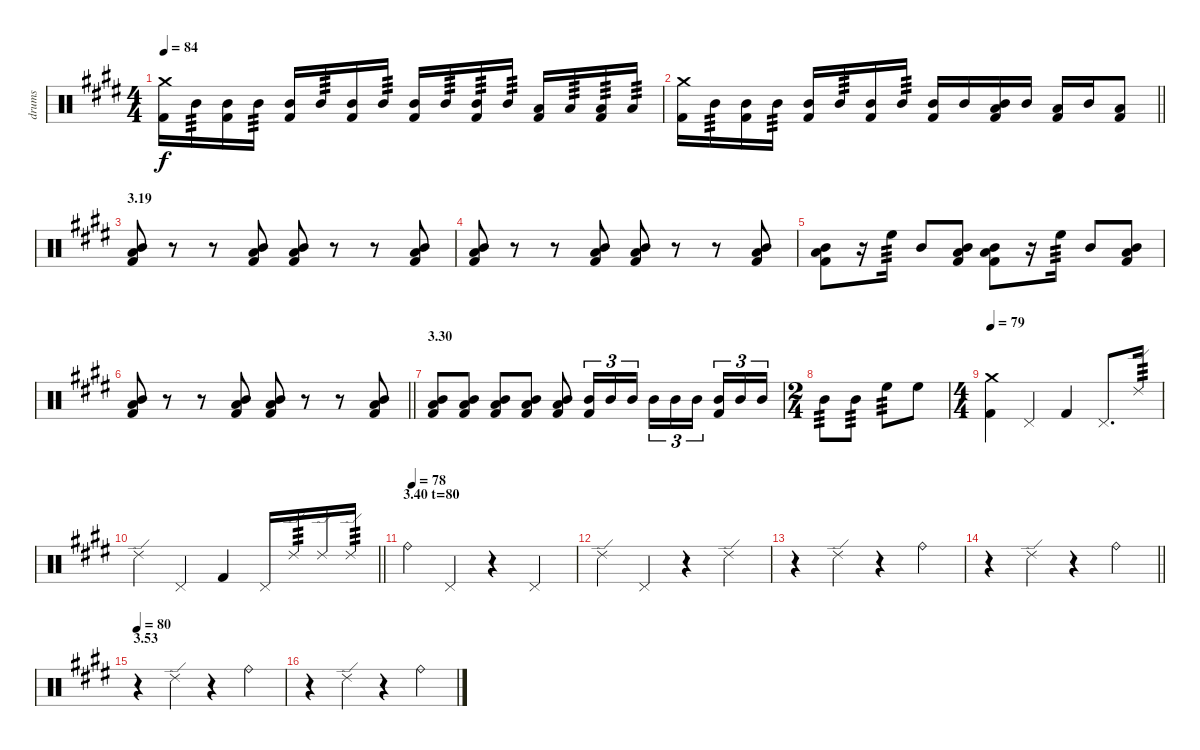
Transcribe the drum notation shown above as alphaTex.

\track ("drums" "drums") {instrument percussion}
\staff {score}
\articulation defaults
\ts (4 4)
\tempo 84
\clef neutral
\ks e
("Crash medium (hit)" "Kick (hit) 2").16{dy f} "Mid Tom (hit)".16{tp 3} ("Mid Tom (hit)" "Kick (hit) 2").16 "Mid Tom (hit)".16{tp 3} ("Mid Tom (hit)" "Kick (hit) 2").16 "Mid Tom (hit)".16{tp 3} ("Mid Tom (hit)" "Kick (hit) 2").16 "Mid Tom (hit)".16{tp 3} ("Mid Tom (hit)" "Kick (hit) 2").16 "Mid Tom (hit)".16{tp 3} ("Mid Tom (hit)" "Kick (hit) 2").16{tp 3} "Mid Tom (hit)".16{tp 3} ("Low Tom (hit)" "Kick (hit) 2").16 "Low Tom (hit)".16{tp 3} ("Low Tom (hit)" "Kick (hit) 2").16{tp 3} "Low Tom (hit)".16{tp 3} |
\barLineRight lightlight
("Crash medium (hit)" "Kick (hit) 2").16 "Mid Tom (hit)".16{tp 3} ("Mid Tom (hit)" "Kick (hit) 2").16 "Mid Tom (hit)".16{tp 3} ("Mid Tom (hit)" "Kick (hit) 2").16 "Mid Tom (hit)".16{tp 3} ("Mid Tom (hit)" "Kick (hit) 2").16 "Mid Tom (hit)".16{tp 3} ("Mid Tom (hit)" "Kick (hit) 2").16 "Mid Tom (hit)".16 ("Mid Tom (hit)" "Low Tom (hit)" "Kick (hit) 2").16 "Mid Tom (hit)".16 ("Low Tom (hit)" "Kick (hit) 2").16 "Mid Tom (hit)".16 ("Low Tom (hit)" "Kick (hit) 2").8 |
\section ("" "3.19")
("Mid Tom (hit)" "Low Tom (hit)" "Kick (hit) 2").8 r.8 r.8 ("Mid Tom (hit)" "Low Tom (hit)" "Kick (hit) 2").8 ("Mid Tom (hit)" "Low Tom (hit)" "Kick (hit) 2").8 r.8 r.8 ("Mid Tom (hit)" "Low Tom (hit)" "Kick (hit) 2").8 |
("Mid Tom (hit)" "Low Tom (hit)" "Kick (hit) 2").8 r.8 r.8 ("Mid Tom (hit)" "Low Tom (hit)" "Kick (hit) 2").8 ("Mid Tom (hit)" "Low Tom (hit)" "Kick (hit) 2").8 r.8 r.8 ("Mid Tom (hit)" "Low Tom (hit)" "Kick (hit) 2").8 |
("Mid Tom (hit)" "Low Tom (hit)" "Kick (hit) 2").8 r.16 "High Floor Tom (hit)".16{tp 3} "Mid Tom (hit)".8 ("Mid Tom (hit)" "Low Tom (hit)" "Kick (hit) 2").8 ("Mid Tom (hit)" "Low Tom (hit)" "Kick (hit) 2").8 r.16 "High Floor Tom (hit)".16{tp 3} "Mid Tom (hit)".8 ("Mid Tom (hit)" "Low Tom (hit)" "Kick (hit) 2").8 |
\barLineRight lightlight
("Mid Tom (hit)" "Low Tom (hit)" "Kick (hit) 2").8 r.8 r.8 ("Mid Tom (hit)" "Low Tom (hit)" "Kick (hit) 2").8 ("Mid Tom (hit)" "Low Tom (hit)" "Kick (hit) 2").8 r.8 r.8 ("Mid Tom (hit)" "Low Tom (hit)" "Kick (hit) 2").8 |
\section ("" "3.30")
("Mid Tom (hit)" "Low Tom (hit)" "Kick (hit) 2").8 ("Mid Tom (hit)" "Low Tom (hit)" "Kick (hit) 2").8 ("Mid Tom (hit)" "Low Tom (hit)" "Kick (hit) 2").8 ("Mid Tom (hit)" "Low Tom (hit)" "Kick (hit) 2").8 ("Mid Tom (hit)" "Low Tom (hit)" "Kick (hit) 2").8 ("Mid Tom (hit)" "Kick (hit) 2").16{tu (3 2)} "Mid Tom (hit)".16{tu (3 2)} "Mid Tom (hit)".16{tu (3 2)} "Mid Tom (hit)".16{tu (3 2)} "Mid Tom (hit)".16{tu (3 2)} "Mid Tom (hit)".16{tu (3 2) beam splitsecondary} ("Mid Tom (hit)" "Kick (hit) 2").16{tu (3 2)} "Mid Tom (hit)".16{tu (3 2)} "Mid Tom (hit)".16{tu (3 2)} |
\ts (2 4)
"Mid Tom (hit)".8{tp 3} "Mid Tom (hit)".8{tp 3} "High Floor Tom (hit)".8{tp 3} "High Floor Tom (hit)".8 |
\ts (4 4)
\tempo 79
("Crash medium (hit)" "Kick (hit) 2").4 "Pedal Hi-Hat (hit)".4 "Kick (hit) 2".4 "Pedal Hi-Hat (hit)".8{d} "Ride (edge) 2".16{tp 3} |
\barLineRight lightlight "Ride (edge) 2".4 "Pedal Hi-Hat (hit)".4 "Kick (hit) 2".4 "Pedal Hi-Hat (hit)".16 "Ride (edge) 2".16{tp 3} "Ride (edge) 2".16 "Ride (edge) 2".16{tp 3}
|
\section ("" "3.40 t=80")
\tempo (78 0.03125)
"Ride (bell)".4 "Pedal Hi-Hat (hit)".4 r.4 "Pedal Hi-Hat (hit)".4 |
"Ride (edge) 2".4 "Pedal Hi-Hat (hit)".4 r.4 "Ride (edge) 2".4 |
r.4 "Ride (edge) 2".4 r.4 "Ride (bell)".4 |
\barLineRight lightlight
r.4 "Ride (edge) 2".4 r.4 "Ride (bell)".4 |
\section ("" "3.53")
\tempo 80
r.4 "Ride (edge) 2".4 r.4 "Ride (bell)".4 |
r.4 "Ride (edge) 2".4 r.4 "Ride (bell)".4
